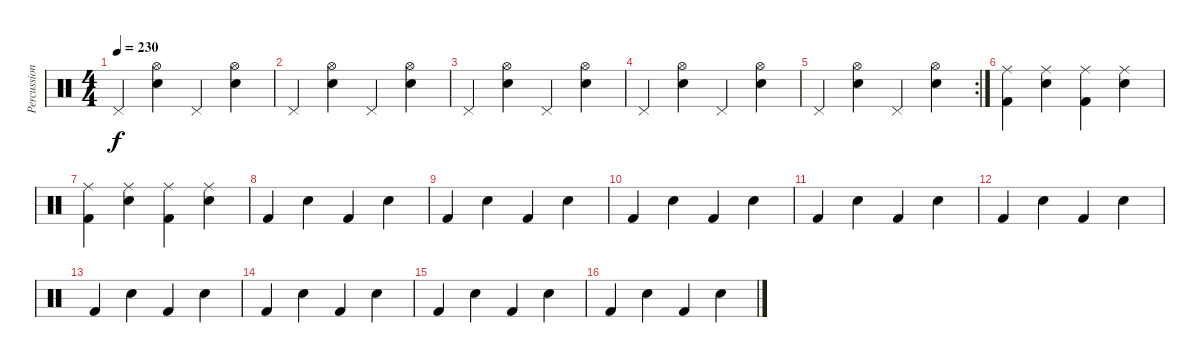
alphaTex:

\track ("Percussion" "Percussion") {instrument percussion}
\staff {score}
\articulation defaults
\ts (4 4)
\tempo 230
\clef neutral
\ks c "Pedal Hi-Hat (hit)".4{dy f}
("Hi-Hat (open)" "Electric Snare (hit)").4 "Pedal Hi-Hat (hit)".4 ("Hi-Hat (open)" "Electric Snare (hit)").4 |
"Pedal Hi-Hat (hit)".4 ("Hi-Hat (open)" "Electric Snare (hit)").4 "Pedal Hi-Hat (hit)".4 ("Hi-Hat (open)" "Electric Snare (hit)").4 |
"Pedal Hi-Hat (hit)".4 ("Hi-Hat (open)" "Electric Snare (hit)").4 "Pedal Hi-Hat (hit)".4 ("Hi-Hat (open)" "Electric Snare (hit)").4 |
"Pedal Hi-Hat (hit)".4 ("Hi-Hat (open)" "Electric Snare (hit)").4 "Pedal Hi-Hat (hit)".4 ("Hi-Hat (open)" "Electric Snare (hit)").4 |
\rc 2 "Pedal Hi-Hat (hit)".4
("Hi-Hat (open)" "Electric Snare (hit)").4 "Pedal Hi-Hat (hit)".4 ("Hi-Hat (open)" "Electric Snare (hit)").4 |
("Ride (middle)" "Kick (hit) 2").4 ("Ride (middle)" "Electric Snare (hit)").4 ("Ride (middle)" "Kick (hit) 2").4 ("Ride (middle)" "Electric Snare (hit)").4 |
("Ride (middle)" "Kick (hit) 2").4 ("Ride (middle)" "Electric Snare (hit)").4 ("Ride (middle)" "Kick (hit) 2").4 ("Ride (middle)" "Electric Snare (hit)").4 |
"Kick (hit) 2".4 "Electric Snare (hit)".4 "Kick (hit) 2".4 "Electric Snare (hit)".4 |
"Kick (hit) 2".4 "Electric Snare (hit)".4 "Kick (hit) 2".4 "Electric Snare (hit)".4 |
"Kick (hit) 2".4 "Electric Snare (hit)".4 "Kick (hit) 2".4 "Electric Snare (hit)".4 |
"Kick (hit) 2".4 "Electric Snare (hit)".4 "Kick (hit) 2".4 "Electric Snare (hit)".4 |
"Kick (hit) 2".4 "Electric Snare (hit)".4 "Kick (hit) 2".4 "Electric Snare (hit)".4 |
"Kick (hit) 2".4 "Electric Snare (hit)".4 "Kick (hit) 2".4 "Electric Snare (hit)".4 |
"Kick (hit) 2".4 "Electric Snare (hit)".4 "Kick (hit) 2".4 "Electric Snare (hit)".4 |
"Kick (hit) 2".4 "Electric Snare (hit)".4 "Kick (hit) 2".4 "Electric Snare (hit)".4 |
"Kick (hit) 2".4 "Electric Snare (hit)".4 "Kick (hit) 2".4 "Electric Snare (hit)".4
